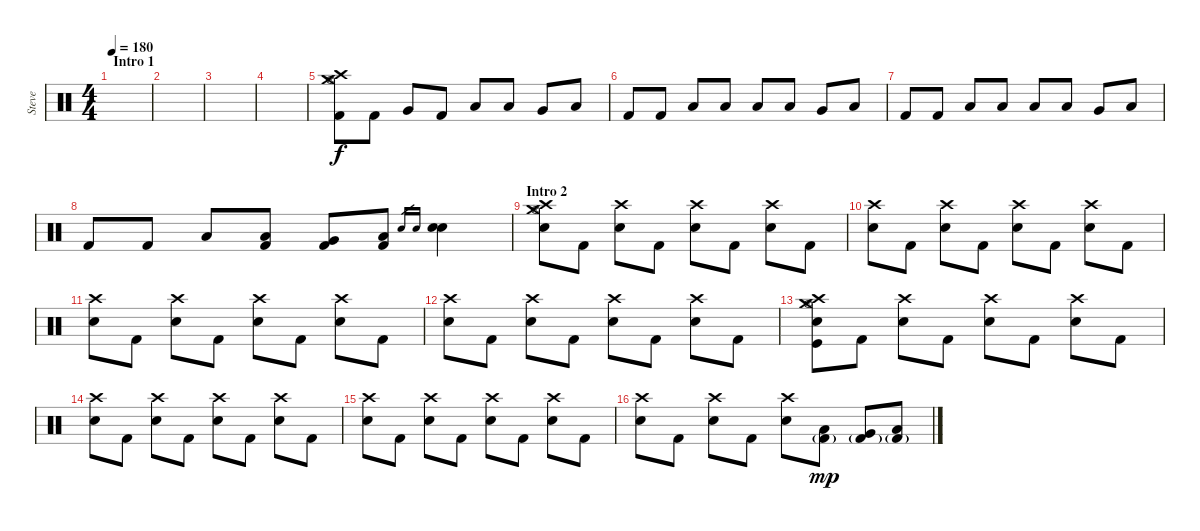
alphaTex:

\track ("Steve" "Steve") {instrument percussion}
\staff {score}
\articulation defaults
\ts (4 4)
\section ("" "Intro 1")
\tempo 180
\clef neutral
\ks c
|
|
|
|
("Hi-Hat (open)" "Crash medium (hit)" "Crash high (hit)" "Kick (hit) 2").8 "Kick (hit) 2".8 "Very Low Tom (hit)".8 "Kick (hit) 2".8 "Low Floor Tom (hit)".8 "Low Tom (hit)".8 "Very Low Tom (hit)".8 "Low Tom (hit)".8 |
"Kick (hit) 2".8 "Kick (hit) 2".8 "Low Tom (hit)".8 "Low Floor Tom (hit)".8 "Low Floor Tom (hit)".8 "Low Tom (hit)".8 "Very Low Tom (hit)".8 "Low Tom (hit)".8 |
"Kick (hit) 2".8 "Kick (hit) 2".8 "Low Tom (hit)".8 "Low Floor Tom (hit)".8 "Low Floor Tom (hit)".8 "Low Tom (hit)".8 "Very Low Tom (hit)".8 "Low Tom (hit)".8 |
"Kick (hit) 2".8 "Kick (hit) 2".8 "Low Tom (hit)".8 ("Low Tom (hit)" "Kick (hit) 2").8 ("Very Low Tom (hit)" "Kick (hit) 2").8 ("Low Floor Tom (hit)" "Kick (hit) 2").8 "Electric Snare (hit)".16{gr} "Electric Snare (hit)".16{gr} ("Electric Snare (hit)" "Electric Snare (hit)").4 |
\section ("" "Intro 2")
("Crash medium (hit)" "Crash high (hit)" "Hi-Hat (open)" "Electric Snare (hit)").8 "Kick (hit) 2".8 ("Crash high (hit)" "Electric Snare (hit)").8 "Kick (hit) 2".8 ("Crash high (hit)" "Electric Snare (hit)").8 "Kick (hit) 2".8 ("Crash high (hit)" "Electric Snare (hit)").8 "Kick (hit) 2".8 |
("Crash high (hit)" "Electric Snare (hit)").8 "Kick (hit) 2".8 ("Crash high (hit)" "Electric Snare (hit)").8 "Kick (hit) 2".8 ("Crash high (hit)" "Electric Snare (hit)").8 "Kick (hit) 2".8 ("Crash high (hit)" "Electric Snare (hit)").8 "Kick (hit) 2".8 |
("Crash high (hit)" "Electric Snare (hit)").8 "Kick (hit) 2".8 ("Crash high (hit)" "Electric Snare (hit)").8 "Kick (hit) 2".8 ("Crash high (hit)" "Electric Snare (hit)").8 "Kick (hit) 2".8 ("Crash high (hit)" "Electric Snare (hit)").8 "Kick (hit) 2".8 |
("Crash high (hit)" "Electric Snare (hit)").8 "Kick (hit) 2".8 ("Crash high (hit)" "Electric Snare (hit)").8 "Kick (hit) 2".8 ("Crash high (hit)" "Electric Snare (hit)").8 "Kick (hit) 2".8 ("Crash high (hit)" "Electric Snare (hit)").8 "Kick (hit) 2".8 |
("Crash medium (hit)" "Crash high (hit)" "Hi-Hat (open)" "Kick (hit)" "Electric Snare (hit)").8 "Kick (hit) 2".8 ("Crash high (hit)" "Electric Snare (hit)").8 "Kick (hit) 2".8 ("Crash high (hit)" "Electric Snare (hit)").8 "Kick (hit) 2".8 ("Crash high (hit)" "Electric Snare (hit)").8 "Kick (hit) 2".8 |
("Crash high (hit)" "Electric Snare (hit)").8 "Kick (hit) 2".8 ("Crash high (hit)" "Electric Snare (hit)").8 "Kick (hit) 2".8 ("Crash high (hit)" "Electric Snare (hit)").8 "Kick (hit) 2".8 ("Crash high (hit)" "Electric Snare (hit)").8 "Kick (hit) 2".8 |
("Crash high (hit)" "Electric Snare (hit)").8 "Kick (hit) 2".8 ("Crash high (hit)" "Electric Snare (hit)").8 "Kick (hit) 2".8 ("Crash high (hit)" "Electric Snare (hit)").8 "Kick (hit) 2".8 ("Crash high (hit)" "Electric Snare (hit)").8 "Kick (hit) 2".8 |
("Crash high (hit)" "Electric Snare (hit)").8 "Kick (hit) 2".8 ("Crash high (hit)" "Electric Snare (hit)").8 "Kick (hit) 2".8 ("Crash high (hit)" "Electric Snare (hit)").8 ("Low Tom (hit)" "Kick (hit) 2"{g}).8{dy mp} ("Very Low Tom (hit)" "Kick (hit) 2"{g}).8 ("Low Floor Tom (hit)" "Kick (hit) 2"{g}).8
